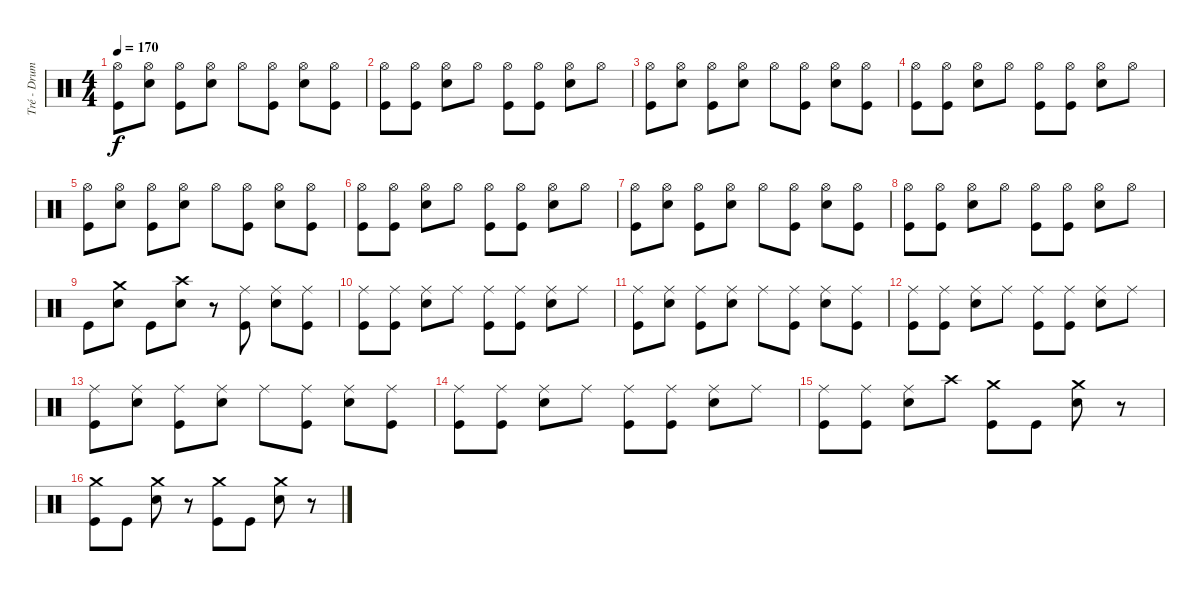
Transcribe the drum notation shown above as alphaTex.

\track ("Tré - Drums" "Tré - Drum") {instrument percussion}
\staff {score}
\articulation defaults
\ts (4 4)
\tempo 170
\clef neutral
\ks c
("Hi-Hat (open)" "Kick (hit)").8{dy f} ("Hi-Hat (open)" "Electric Snare (hit)").8 ("Hi-Hat (open)" "Kick (hit)").8 ("Hi-Hat (open)" "Electric Snare (hit)").8 "Hi-Hat (open)".8 ("Hi-Hat (open)" "Kick (hit)").8 ("Hi-Hat (open)" "Electric Snare (hit)").8 ("Hi-Hat (open)" "Kick (hit)").8 |
("Hi-Hat (open)" "Kick (hit)").8 ("Hi-Hat (open)" "Kick (hit)").8 ("Hi-Hat (open)" "Electric Snare (hit)").8 "Hi-Hat (open)".8 ("Hi-Hat (open)" "Kick (hit)").8 ("Hi-Hat (open)" "Kick (hit)").8 ("Hi-Hat (open)" "Electric Snare (hit)").8 "Hi-Hat (open)".8 |
("Hi-Hat (open)" "Kick (hit)").8 ("Hi-Hat (open)" "Electric Snare (hit)").8 ("Hi-Hat (open)" "Kick (hit)").8 ("Hi-Hat (open)" "Electric Snare (hit)").8 "Hi-Hat (open)".8 ("Hi-Hat (open)" "Kick (hit)").8 ("Hi-Hat (open)" "Electric Snare (hit)").8 ("Hi-Hat (open)" "Kick (hit)").8 |
("Hi-Hat (open)" "Kick (hit)").8 ("Hi-Hat (open)" "Kick (hit)").8 ("Hi-Hat (open)" "Electric Snare (hit)").8 "Hi-Hat (open)".8 ("Hi-Hat (open)" "Kick (hit)").8 ("Hi-Hat (open)" "Kick (hit)").8 ("Hi-Hat (open)" "Electric Snare (hit)").8 "Hi-Hat (open)".8 |
("Hi-Hat (open)" "Kick (hit)").8 ("Hi-Hat (open)" "Electric Snare (hit)").8 ("Hi-Hat (open)" "Kick (hit)").8 ("Hi-Hat (open)" "Electric Snare (hit)").8 "Hi-Hat (open)".8 ("Hi-Hat (open)" "Kick (hit)").8 ("Hi-Hat (open)" "Electric Snare (hit)").8 ("Hi-Hat (open)" "Kick (hit)").8 |
("Hi-Hat (open)" "Kick (hit)").8 ("Hi-Hat (open)" "Kick (hit)").8 ("Hi-Hat (open)" "Electric Snare (hit)").8 "Hi-Hat (open)".8 ("Hi-Hat (open)" "Kick (hit)").8 ("Hi-Hat (open)" "Kick (hit)").8 ("Hi-Hat (open)" "Electric Snare (hit)").8 "Hi-Hat (open)".8 |
("Hi-Hat (open)" "Kick (hit)").8 ("Hi-Hat (open)" "Electric Snare (hit)").8 ("Hi-Hat (open)" "Kick (hit)").8 ("Hi-Hat (open)" "Electric Snare (hit)").8 "Hi-Hat (open)".8 ("Hi-Hat (open)" "Kick (hit)").8 ("Hi-Hat (open)" "Electric Snare (hit)").8 ("Hi-Hat (open)" "Kick (hit)").8 |
("Hi-Hat (open)" "Kick (hit)").8 ("Hi-Hat (open)" "Kick (hit)").8 ("Hi-Hat (open)" "Electric Snare (hit)").8 "Hi-Hat (open)".8 ("Hi-Hat (open)" "Kick (hit)").8 ("Hi-Hat (open)" "Kick (hit)").8 ("Hi-Hat (open)" "Electric Snare (hit)").8 "Hi-Hat (open)".8 |
"Kick (hit)".8 ("Crash medium (hit)" "Electric Snare (hit)").8 "Kick (hit)".8 ("Crash high (hit)" "Electric Snare (hit)").8 r.8 ("Ride (middle)" "Kick (hit)").8 ("Ride (middle)" "Electric Snare (hit)").8 ("Ride (middle)" "Kick (hit)").8 |
("Ride (middle)" "Kick (hit)").8 ("Ride (middle)" "Kick (hit)").8 ("Ride (middle)" "Electric Snare (hit)").8 "Ride (middle)".8 ("Ride (middle)" "Kick (hit)").8 ("Ride (middle)" "Kick (hit)").8 ("Ride (middle)" "Electric Snare (hit)").8 "Ride (middle)".8 |
("Ride (middle)" "Kick (hit)").8 ("Ride (middle)" "Electric Snare (hit)").8 ("Ride (middle)" "Kick (hit)").8 ("Ride (middle)" "Electric Snare (hit)").8 "Ride (middle)".8 ("Ride (middle)" "Kick (hit)").8 ("Ride (middle)" "Electric Snare (hit)").8 ("Ride (middle)" "Kick (hit)").8 |
("Ride (middle)" "Kick (hit)").8 ("Ride (middle)" "Kick (hit)").8 ("Ride (middle)" "Electric Snare (hit)").8 "Ride (middle)".8 ("Ride (middle)" "Kick (hit)").8 ("Ride (middle)" "Kick (hit)").8 ("Ride (middle)" "Electric Snare (hit)").8 "Ride (middle)".8 |
("Ride (middle)" "Kick (hit)").8 ("Ride (middle)" "Electric Snare (hit)").8 ("Ride (middle)" "Kick (hit)").8 ("Ride (middle)" "Electric Snare (hit)").8 "Ride (middle)".8 ("Ride (middle)" "Kick (hit)").8 ("Ride (middle)" "Electric Snare (hit)").8 ("Ride (middle)" "Kick (hit)").8 |
("Ride (middle)" "Kick (hit)").8 ("Ride (middle)" "Kick (hit)").8 ("Ride (middle)" "Electric Snare (hit)").8 "Ride (middle)".8 ("Ride (middle)" "Kick (hit)").8 ("Ride (middle)" "Kick (hit)").8 ("Ride (middle)" "Electric Snare (hit)").8 "Ride (middle)".8 |
("Ride (middle)" "Kick (hit)").8 ("Ride (middle)" "Kick (hit)").8 ("Ride (middle)" "Electric Snare (hit)").8 "Crash high (hit)".8 ("Crash medium (hit)" "Kick (hit)").8 "Kick (hit)".8 ("Crash medium (hit)" "Electric Snare (hit)").8 r.8 |
("Crash medium (hit)" "Kick (hit)").8 "Kick (hit)".8 ("Crash medium (hit)" "Electric Snare (hit)").8 r.8 ("Crash medium (hit)" "Kick (hit)").8 "Kick (hit)".8 ("Crash medium (hit)" "Electric Snare (hit)").8 r.8
